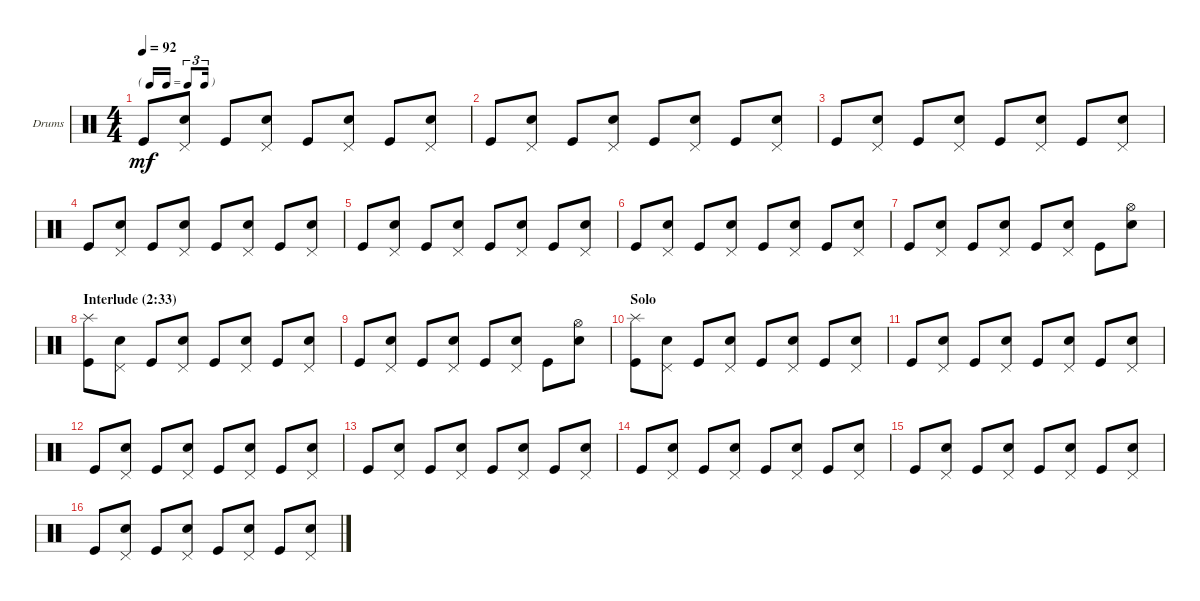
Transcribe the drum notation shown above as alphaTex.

\defaultSystemsLayout 4
\bracketExtendMode nobrackets
\firstSystemTrackNameOrientation horizontal
\otherSystemsTrackNameOrientation horizontal
\track ("Drumkit" "Drums") {instrument percussion}
\staff {score}
\articulation defaults
\ts (4 4)
\tf triplet16th
\tempo 92
\clef neutral
\ks c "Kick (hit)".8{dy mf}
("Snare (hit) 2" "Pedal Hi-Hat (hit)").8 "Kick (hit)".8 ("Snare (hit) 2" "Pedal Hi-Hat (hit)").8 "Kick (hit)".8 ("Snare (hit) 2" "Pedal Hi-Hat (hit)").8 "Kick (hit)".8 ("Snare (hit) 2" "Pedal Hi-Hat (hit)").8 |
"Kick (hit)".8 ("Snare (hit) 2" "Pedal Hi-Hat (hit)").8 "Kick (hit)".8 ("Snare (hit) 2" "Pedal Hi-Hat (hit)").8 "Kick (hit)".8 ("Snare (hit) 2" "Pedal Hi-Hat (hit)").8 "Kick (hit)".8 ("Snare (hit) 2" "Pedal Hi-Hat (hit)").8 |
"Kick (hit)".8 ("Snare (hit) 2" "Pedal Hi-Hat (hit)").8 "Kick (hit)".8 ("Snare (hit) 2" "Pedal Hi-Hat (hit)").8 "Kick (hit)".8 ("Snare (hit) 2" "Pedal Hi-Hat (hit)").8 "Kick (hit)".8 ("Snare (hit) 2" "Pedal Hi-Hat (hit)").8 |
"Kick (hit)".8 ("Snare (hit) 2" "Pedal Hi-Hat (hit)").8 "Kick (hit)".8 ("Snare (hit) 2" "Pedal Hi-Hat (hit)").8 "Kick (hit)".8 ("Snare (hit) 2" "Pedal Hi-Hat (hit)").8 "Kick (hit)".8 ("Snare (hit) 2" "Pedal Hi-Hat (hit)").8 |
"Kick (hit)".8 ("Snare (hit) 2" "Pedal Hi-Hat (hit)").8 "Kick (hit)".8 ("Snare (hit) 2" "Pedal Hi-Hat (hit)").8 "Kick (hit)".8 ("Snare (hit) 2" "Pedal Hi-Hat (hit)").8 "Kick (hit)".8 ("Snare (hit) 2" "Pedal Hi-Hat (hit)").8 |
"Kick (hit)".8 ("Snare (hit) 2" "Pedal Hi-Hat (hit)").8 "Kick (hit)".8 ("Snare (hit) 2" "Pedal Hi-Hat (hit)").8 "Kick (hit)".8 ("Snare (hit) 2" "Pedal Hi-Hat (hit)").8 "Kick (hit)".8 ("Snare (hit) 2" "Pedal Hi-Hat (hit)").8 |
"Kick (hit)".8 ("Snare (hit) 2" "Pedal Hi-Hat (hit)").8 "Kick (hit)".8 ("Snare (hit) 2" "Pedal Hi-Hat (hit)").8 "Kick (hit)".8 ("Snare (hit) 2" "Pedal Hi-Hat (hit)").8 "Kick (hit)".8 ("Snare (hit) 2" "Hi-Hat (open)").8 |
\section ("" "Interlude (2:33)")
("Splash (hit)" "Kick (hit)").8 ("Snare (hit) 2" "Pedal Hi-Hat (hit)").8 "Kick (hit)".8 ("Snare (hit) 2" "Pedal Hi-Hat (hit)").8 "Kick (hit)".8 ("Snare (hit) 2" "Pedal Hi-Hat (hit)").8 "Kick (hit)".8 ("Snare (hit) 2" "Pedal Hi-Hat (hit)").8 |
"Kick (hit)".8 ("Snare (hit) 2" "Pedal Hi-Hat (hit)").8 "Kick (hit)".8 ("Snare (hit) 2" "Pedal Hi-Hat (hit)").8 "Kick (hit)".8 ("Snare (hit) 2" "Pedal Hi-Hat (hit)").8 "Kick (hit)".8 ("Snare (hit) 2" "Hi-Hat (open)").8 |
\section ("" "Solo")
("Splash (hit)" "Kick (hit)").8 ("Snare (hit) 2" "Pedal Hi-Hat (hit)").8 "Kick (hit)".8 ("Snare (hit) 2" "Pedal Hi-Hat (hit)").8 "Kick (hit)".8 ("Snare (hit) 2" "Pedal Hi-Hat (hit)").8 "Kick (hit)".8 ("Snare (hit) 2" "Pedal Hi-Hat (hit)").8 |
"Kick (hit)".8 ("Snare (hit) 2" "Pedal Hi-Hat (hit)").8 "Kick (hit)".8 ("Snare (hit) 2" "Pedal Hi-Hat (hit)").8 "Kick (hit)".8 ("Snare (hit) 2" "Pedal Hi-Hat (hit)").8 "Kick (hit)".8 ("Snare (hit) 2" "Pedal Hi-Hat (hit)").8 |
"Kick (hit)".8 ("Snare (hit) 2" "Pedal Hi-Hat (hit)").8 "Kick (hit)".8 ("Snare (hit) 2" "Pedal Hi-Hat (hit)").8 "Kick (hit)".8 ("Snare (hit) 2" "Pedal Hi-Hat (hit)").8 "Kick (hit)".8 ("Snare (hit) 2" "Pedal Hi-Hat (hit)").8 |
"Kick (hit)".8 ("Snare (hit) 2" "Pedal Hi-Hat (hit)").8 "Kick (hit)".8 ("Snare (hit) 2" "Pedal Hi-Hat (hit)").8 "Kick (hit)".8 ("Snare (hit) 2" "Pedal Hi-Hat (hit)").8 "Kick (hit)".8 ("Snare (hit) 2" "Pedal Hi-Hat (hit)").8 |
"Kick (hit)".8 ("Snare (hit) 2" "Pedal Hi-Hat (hit)").8 "Kick (hit)".8 ("Snare (hit) 2" "Pedal Hi-Hat (hit)").8 "Kick (hit)".8 ("Snare (hit) 2" "Pedal Hi-Hat (hit)").8 "Kick (hit)".8 ("Snare (hit) 2" "Pedal Hi-Hat (hit)").8 |
"Kick (hit)".8 ("Snare (hit) 2" "Pedal Hi-Hat (hit)").8 "Kick (hit)".8 ("Snare (hit) 2" "Pedal Hi-Hat (hit)").8 "Kick (hit)".8 ("Snare (hit) 2" "Pedal Hi-Hat (hit)").8 "Kick (hit)".8 ("Snare (hit) 2" "Pedal Hi-Hat (hit)").8 |
"Kick (hit)".8 ("Snare (hit) 2" "Pedal Hi-Hat (hit)").8 "Kick (hit)".8 ("Snare (hit) 2" "Pedal Hi-Hat (hit)").8 "Kick (hit)".8 ("Snare (hit) 2" "Pedal Hi-Hat (hit)").8 "Kick (hit)".8 ("Snare (hit) 2" "Pedal Hi-Hat (hit)").8
